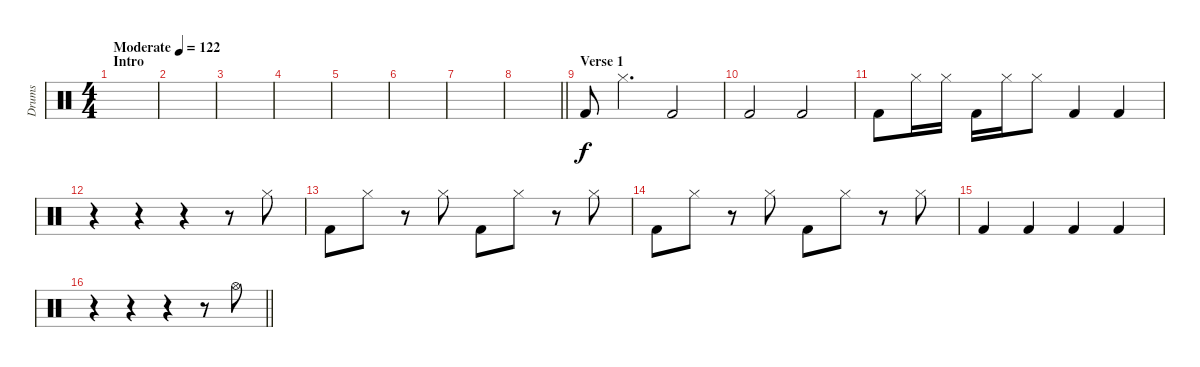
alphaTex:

\track ("Drums" "Drums") {instrument percussion}
\staff {score}
\articulation defaults
\ts (4 4)
\section ("" "Intro")
\tempo (122 "Moderate")
\clef neutral
\ks c
|
|
|
|
|
|
|
\barLineRight lightlight
|
\section ("" "Verse 1")
"Kick (hit) 2".8 "Hi-Hat (closed)".4{d} "Kick (hit) 2".2 |
"Kick (hit) 2".2 "Kick (hit) 2".2 |
"Kick (hit) 2".8 "Hi-Hat (closed)".16 "Hi-Hat (closed)".16 "Kick (hit) 2".16 "Hi-Hat (closed)".16 "Hi-Hat (closed)".8 "Kick (hit) 2".4 "Kick (hit) 2".4 |
r.4 r.4 r.4 r.8 "Hi-Hat (closed)".8 |
"Kick (hit) 2".8 "Hi-Hat (closed)".8 r.8 "Hi-Hat (closed)".8 "Kick (hit) 2".8 "Hi-Hat (closed)".8 r.8 "Hi-Hat (closed)".8 |
"Kick (hit) 2".8 "Hi-Hat (closed)".8 r.8 "Hi-Hat (closed)".8 "Kick (hit) 2".8 "Hi-Hat (closed)".8 r.8 "Hi-Hat (closed)".8 |
"Kick (hit) 2".4 "Kick (hit) 2".4 "Kick (hit) 2".4 "Kick (hit) 2".4 |
\barLineRight lightlight
r.4 r.4 r.4 r.8 "Hi-Hat (open)".8
